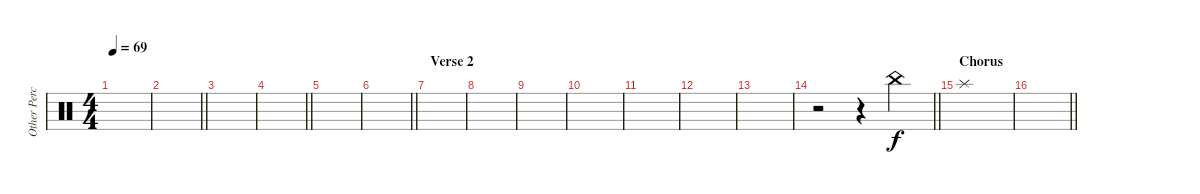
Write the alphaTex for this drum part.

\track ("Other Percussion" "Other Perc") {instrument percussion}
\staff {score}
\articulation defaults
\ts (4 4)
\tempo 69
\clef neutral
\ks aminor
|
\barLineRight lightlight
|
|
\barLineRight lightlight
|
|
\barLineRight lightlight
|
\section ("" "Verse 2")
|
|
|
|
|
|
|
\barLineRight lightlight
r.2 r.4 "China (hit)".4 |
\section ("" "Chorus")
"Splash (hit)".1 |
\barLineRight lightlight
